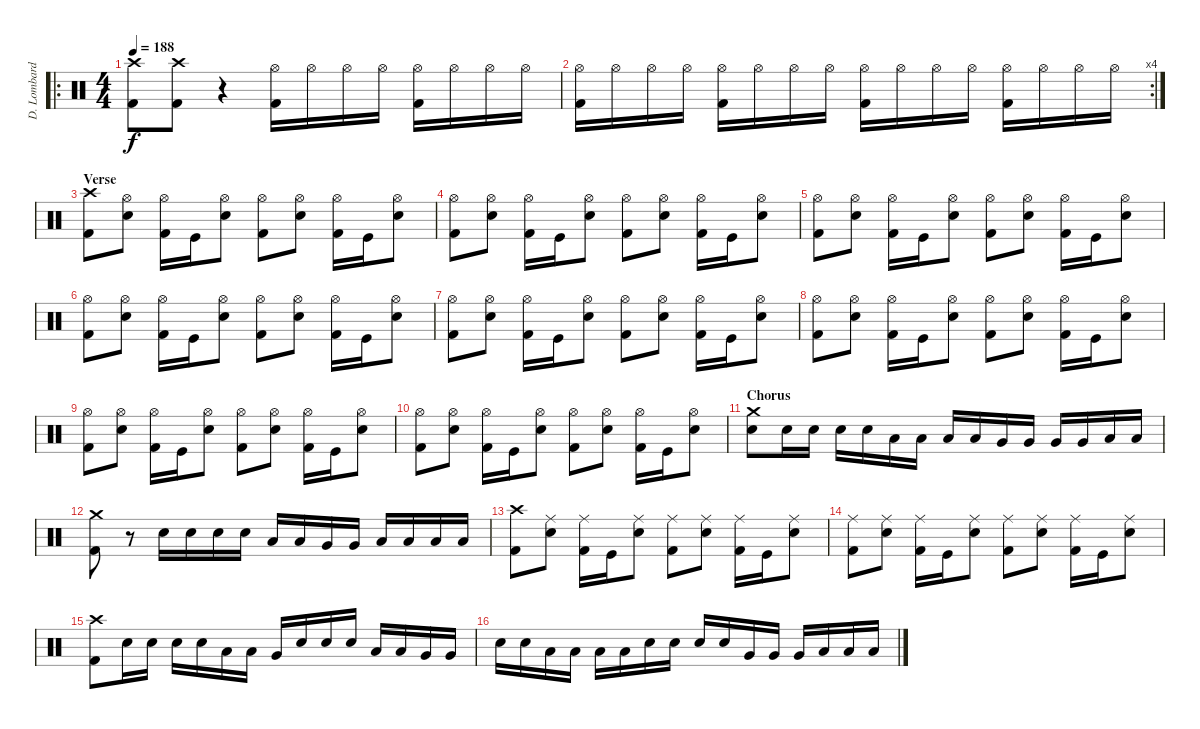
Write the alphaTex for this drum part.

\track ("D. Lombardo" "D. Lombard") {instrument percussion}
\staff {score}
\articulation defaults
\ro
\ts (4 4)
\tempo 188
\clef neutral
\ks c
("Crash high (hit)" "Kick (hit) 2").8{dy f} ("Crash high (hit)" "Kick (hit) 2").8 r.4 ("Hi-Hat (open)" "Kick (hit) 2").16 "Hi-Hat (open)".16 "Hi-Hat (open)".16 "Hi-Hat (open)".16 ("Hi-Hat (open)" "Kick (hit) 2").16 "Hi-Hat (open)".16 "Hi-Hat (open)".16 "Hi-Hat (open)".16 |
\rc 4
("Hi-Hat (open)" "Kick (hit) 2").16 "Hi-Hat (open)".16 "Hi-Hat (open)".16 "Hi-Hat (open)".16 ("Hi-Hat (open)" "Kick (hit) 2").16 "Hi-Hat (open)".16 "Hi-Hat (open)".16 "Hi-Hat (open)".16 ("Hi-Hat (open)" "Kick (hit) 2").16 "Hi-Hat (open)".16 "Hi-Hat (open)".16 "Hi-Hat (open)".16 ("Hi-Hat (open)" "Kick (hit) 2").16 "Hi-Hat (open)".16 "Hi-Hat (open)".16 "Hi-Hat (open)".16 |
\section ("" "Verse")
("Crash high (hit)" "Kick (hit) 2").8 ("Hi-Hat (open)" "Electric Snare (hit)").8 ("Hi-Hat (open)" "Kick (hit) 2").16 "Kick (hit)".16 ("Hi-Hat (open)" "Electric Snare (hit)").8 ("Hi-Hat (open)" "Kick (hit) 2").8 ("Hi-Hat (open)" "Electric Snare (hit)").8 ("Hi-Hat (open)" "Kick (hit) 2").16 "Kick (hit)".16 ("Hi-Hat (open)" "Electric Snare (hit)").8 |
("Hi-Hat (open)" "Kick (hit) 2").8 ("Hi-Hat (open)" "Electric Snare (hit)").8 ("Hi-Hat (open)" "Kick (hit) 2").16 "Kick (hit)".16 ("Hi-Hat (open)" "Electric Snare (hit)").8 ("Hi-Hat (open)" "Kick (hit) 2").8 ("Hi-Hat (open)" "Electric Snare (hit)").8 ("Hi-Hat (open)" "Kick (hit) 2").16 "Kick (hit)".16 ("Hi-Hat (open)" "Electric Snare (hit)").8 |
("Hi-Hat (open)" "Kick (hit) 2").8 ("Hi-Hat (open)" "Electric Snare (hit)").8 ("Hi-Hat (open)" "Kick (hit) 2").16 "Kick (hit)".16 ("Hi-Hat (open)" "Electric Snare (hit)").8 ("Hi-Hat (open)" "Kick (hit) 2").8 ("Hi-Hat (open)" "Electric Snare (hit)").8 ("Hi-Hat (open)" "Kick (hit) 2").16 "Kick (hit)".16 ("Hi-Hat (open)" "Electric Snare (hit)").8 |
("Hi-Hat (open)" "Kick (hit) 2").8 ("Hi-Hat (open)" "Electric Snare (hit)").8 ("Hi-Hat (open)" "Kick (hit) 2").16 "Kick (hit)".16 ("Hi-Hat (open)" "Electric Snare (hit)").8 ("Hi-Hat (open)" "Kick (hit) 2").8 ("Hi-Hat (open)" "Electric Snare (hit)").8 ("Hi-Hat (open)" "Kick (hit) 2").16 "Kick (hit)".16 ("Hi-Hat (open)" "Electric Snare (hit)").8 |
("Hi-Hat (open)" "Kick (hit) 2").8 ("Hi-Hat (open)" "Electric Snare (hit)").8 ("Hi-Hat (open)" "Kick (hit) 2").16 "Kick (hit)".16 ("Hi-Hat (open)" "Electric Snare (hit)").8 ("Hi-Hat (open)" "Kick (hit) 2").8 ("Hi-Hat (open)" "Electric Snare (hit)").8 ("Hi-Hat (open)" "Kick (hit) 2").16 "Kick (hit)".16 ("Hi-Hat (open)" "Electric Snare (hit)").8 |
("Hi-Hat (open)" "Kick (hit) 2").8 ("Hi-Hat (open)" "Electric Snare (hit)").8 ("Hi-Hat (open)" "Kick (hit) 2").16 "Kick (hit)".16 ("Hi-Hat (open)" "Electric Snare (hit)").8 ("Hi-Hat (open)" "Kick (hit) 2").8 ("Hi-Hat (open)" "Electric Snare (hit)").8 ("Hi-Hat (open)" "Kick (hit) 2").16 "Kick (hit)".16 ("Hi-Hat (open)" "Electric Snare (hit)").8 |
("Hi-Hat (open)" "Kick (hit) 2").8 ("Hi-Hat (open)" "Electric Snare (hit)").8 ("Hi-Hat (open)" "Kick (hit) 2").16 "Kick (hit)".16 ("Hi-Hat (open)" "Electric Snare (hit)").8 ("Hi-Hat (open)" "Kick (hit) 2").8 ("Hi-Hat (open)" "Electric Snare (hit)").8 ("Hi-Hat (open)" "Kick (hit) 2").16 "Kick (hit)".16 ("Hi-Hat (open)" "Electric Snare (hit)").8 |
("Hi-Hat (open)" "Kick (hit) 2").8 ("Hi-Hat (open)" "Electric Snare (hit)").8 ("Hi-Hat (open)" "Kick (hit) 2").16 "Kick (hit)".16 ("Hi-Hat (open)" "Electric Snare (hit)").8 ("Hi-Hat (open)" "Kick (hit) 2").8 ("Hi-Hat (open)" "Electric Snare (hit)").8 ("Hi-Hat (open)" "Kick (hit) 2").16 "Kick (hit)".16 ("Hi-Hat (open)" "Electric Snare (hit)").8 |
\section ("" "Chorus")
("Crash medium (hit)" "Electric Snare (hit)").8 "Electric Snare (hit)".16 "Electric Snare (hit)".16 "Electric Snare (hit)".16 "Electric Snare (hit)".16 "Low Tom (hit)".16 "Low Tom (hit)".16 "Low Tom (hit)".16 "Low Tom (hit)".16 "Very Low Tom (hit)".16 "Very Low Tom (hit)".16 "Very Low Tom (hit)".16 "Very Low Tom (hit)".16 "Low Floor Tom (hit)".16 "Low Floor Tom (hit)".16 |
("Crash medium (hit)" "Kick (hit) 2").8 r.8 "Electric Snare (hit)".16 "Electric Snare (hit)".16 "Electric Snare (hit)".16 "Electric Snare (hit)".16 "Low Tom (hit)".16 "Low Tom (hit)".16 "Very Low Tom (hit)".16 "Very Low Tom (hit)".16 "Low Floor Tom (hit)".16 "Low Floor Tom (hit)".16 "Low Floor Tom (hit)".16 "Low Floor Tom (hit)".16 |
("Crash high (hit)" "Kick (hit) 2").8 ("Ride (middle)" "Electric Snare (hit)").8 ("Ride (middle)" "Kick (hit) 2").16 "Kick (hit)".16 ("Ride (middle)" "Electric Snare (hit)").8 ("Ride (middle)" "Kick (hit) 2").8 ("Ride (middle)" "Electric Snare (hit)").8 ("Ride (middle)" "Kick (hit) 2").16 "Kick (hit)".16 ("Ride (middle)" "Electric Snare (hit)").8 |
("Ride (middle)" "Kick (hit) 2").8 ("Ride (middle)" "Electric Snare (hit)").8 ("Ride (middle)" "Kick (hit) 2").16 "Kick (hit)".16 ("Ride (middle)" "Electric Snare (hit)").8 ("Ride (middle)" "Kick (hit) 2").8 ("Ride (middle)" "Electric Snare (hit)").8 ("Ride (middle)" "Kick (hit) 2").16 "Kick (hit)".16 ("Ride (middle)" "Electric Snare (hit)").8 |
("Crash high (hit)" "Kick (hit) 2").8 "Electric Snare (hit)".16 "Electric Snare (hit)".16 "Electric Snare (hit)".16 "Electric Snare (hit)".16 "Low Tom (hit)".16 "Low Tom (hit)".16 "Very Low Tom (hit)".16 "Electric Snare (hit)".16 "Electric Snare (hit)".16 "Electric Snare (hit)".16 "Low Tom (hit)".16 "Low Tom (hit)".16 "Very Low Tom (hit)".16 "Very Low Tom (hit)".16 |
"Electric Snare (hit)".16 "Electric Snare (hit)".16 "Low Tom (hit)".16 "Low Tom (hit)".16 "Low Tom (hit)".16 "Low Tom (hit)".16 "Electric Snare (hit)".16 "Electric Snare (hit)".16 "Electric Snare (hit)".16 "Electric Snare (hit)".16 "Very Low Tom (hit)".16 "Very Low Tom (hit)".16 "Very Low Tom (hit)".16 "Low Floor Tom (hit)".16 "Low Floor Tom (hit)".16 "Low Floor Tom (hit)".16
